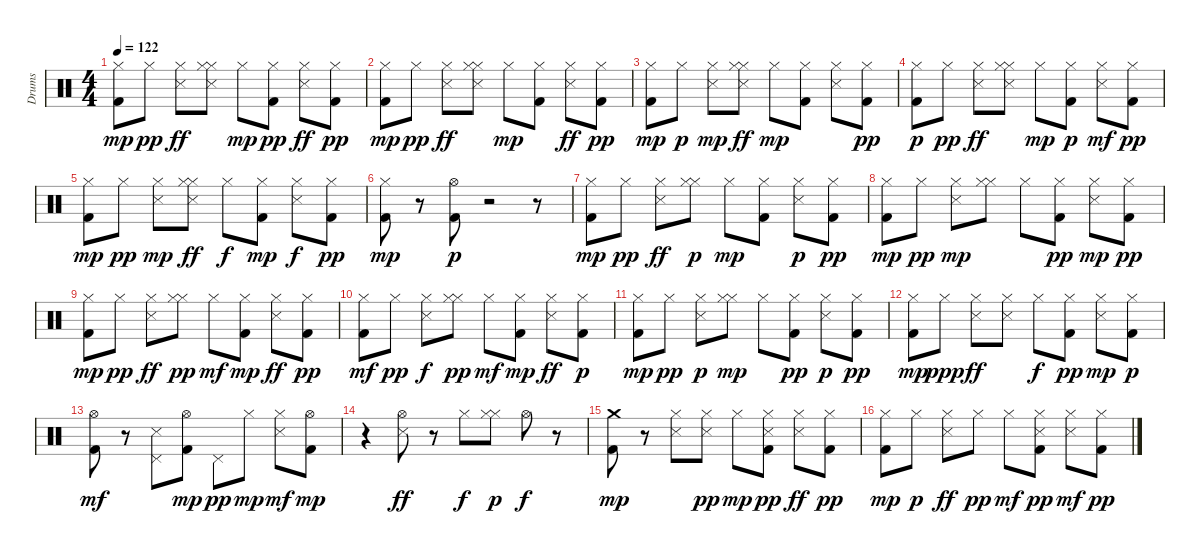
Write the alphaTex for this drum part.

\track ("Drums    " "Drums    ") {instrument percussion}
\staff {score}
\articulation defaults
\ts (4 4)
\tempo 122
\clef neutral
\ks c
("Hi-Hat (closed)" "Kick (hit) 2").8{dy mp} "Hi-Hat (closed)".8{dy pp} ("Hi-Hat (closed)" "Snare (side stick) 3").8{dy ff} ("Hi-Hat (closed)" "Hi-Hat (closed)" "Snare (side stick) 3").8 "Hi-Hat (closed)".8{dy mp} ("Kick (hit) 2" "Hi-Hat (closed)").8{dy pp} ("Hi-Hat (closed)" "Snare (side stick) 3").8{dy ff} ("Hi-Hat (closed)" "Kick (hit) 2").8{dy pp} |
("Hi-Hat (closed)" "Kick (hit) 2").8{dy mp} "Hi-Hat (closed)".8{dy pp} ("Hi-Hat (closed)" "Snare (side stick) 3").8{dy ff} ("Hi-Hat (closed)" "Hi-Hat (closed)" "Snare (side stick) 3").8 "Hi-Hat (closed)".8{dy mp} ("Hi-Hat (closed)" "Kick (hit) 2").8 ("Snare (side stick) 3" "Hi-Hat (closed)").8{dy ff} ("Hi-Hat (closed)" "Kick (hit) 2").8{dy pp} |
("Hi-Hat (closed)" "Kick (hit) 2").8{dy mp} "Hi-Hat (closed)".8{dy p} ("Snare (side stick) 3" "Hi-Hat (closed)").8{dy mp} ("Hi-Hat (closed)" "Hi-Hat (closed)" "Snare (side stick) 3").8{dy ff} "Hi-Hat (closed)".8{dy mp} ("Kick (hit) 2" "Hi-Hat (closed)").8 ("Snare (side stick) 3" "Hi-Hat (closed)").8 ("Kick (hit) 2" "Hi-Hat (closed)").8{dy pp} |
("Kick (hit) 2" "Hi-Hat (closed)").8{dy p} "Hi-Hat (closed)".8{dy pp} ("Hi-Hat (closed)" "Snare (side stick) 3").8{dy ff} ("Hi-Hat (closed)" "Hi-Hat (closed)" "Snare (side stick) 3").8 "Hi-Hat (closed)".8{dy mp} ("Kick (hit) 2" "Hi-Hat (closed)").8{dy p} ("Snare (side stick) 3" "Hi-Hat (closed)").8{dy mf} ("Kick (hit) 2" "Hi-Hat (closed)").8{dy pp} |
("Kick (hit) 2" "Hi-Hat (closed)").8{dy mp} "Hi-Hat (closed)".8{dy pp} ("Snare (side stick) 3" "Hi-Hat (closed)").8{dy mp} ("Hi-Hat (closed)" "Hi-Hat (closed)" "Snare (side stick) 3").8{dy ff} "Hi-Hat (closed)".8{dy f} ("Hi-Hat (closed)" "Kick (hit) 2").8{dy mp} ("Hi-Hat (closed)" "Snare (side stick) 3").8{dy f} ("Hi-Hat (closed)" "Kick (hit) 2").8{dy pp} |
("Kick (hit) 2" "Hi-Hat (closed)").8{dy mp} r.8 ("Hi-Hat (open)" "Kick (hit) 2").8{dy p} r.2 r.8 |
("Hi-Hat (closed)" "Kick (hit) 2").8{dy mp} "Hi-Hat (closed)".8{dy pp} ("Hi-Hat (closed)" "Snare (side stick) 3").8{dy ff} ("Hi-Hat (closed)" "Hi-Hat (closed)").8{dy p} "Hi-Hat (closed)".8{dy mp} ("Hi-Hat (closed)" "Kick (hit) 2").8 ("Snare (side stick) 3" "Hi-Hat (closed)").8{dy p} ("Hi-Hat (closed)" "Kick (hit) 2").8{dy pp} |
("Kick (hit) 2" "Hi-Hat (closed)").8{dy mp} "Hi-Hat (closed)".8{dy pp} ("Snare (side stick) 3" "Hi-Hat (closed)").8{dy mp} ("Hi-Hat (closed)" "Hi-Hat (closed)").8 "Hi-Hat (closed)".8 ("Kick (hit) 2" "Hi-Hat (closed)").8{dy pp} ("Snare (side stick) 3" "Hi-Hat (closed)").8{dy mp} ("Kick (hit) 2" "Hi-Hat (closed)").8{dy pp} |
("Hi-Hat (closed)" "Kick (hit) 2").8{dy mp} "Hi-Hat (closed)".8{dy pp} ("Hi-Hat (closed)" "Snare (side stick) 3").8{dy ff} ("Hi-Hat (closed)" "Hi-Hat (closed)").8{dy pp} "Hi-Hat (closed)".8{dy mf} ("Hi-Hat (closed)" "Kick (hit) 2").8{dy mp} ("Hi-Hat (closed)" "Snare (side stick) 3").8{dy ff} ("Hi-Hat (closed)" "Kick (hit) 2").8{dy pp} |
("Hi-Hat (closed)" "Kick (hit) 2").8{dy mf} "Hi-Hat (closed)".8{dy pp} ("Hi-Hat (closed)" "Snare (side stick) 3").8{dy f} ("Hi-Hat (closed)" "Hi-Hat (closed)").8{dy pp} "Hi-Hat (closed)".8{dy mf} ("Hi-Hat (closed)" "Kick (hit) 2").8{dy mp} ("Hi-Hat (closed)" "Snare (side stick) 3").8{dy ff} ("Hi-Hat (closed)" "Kick (hit) 2").8{dy p} |
("Kick (hit) 2" "Hi-Hat (closed)").8{dy mp} "Hi-Hat (closed)".8{dy pp} ("Snare (side stick) 3" "Hi-Hat (closed)").8{dy p} ("Hi-Hat (closed)" "Hi-Hat (closed)").8{dy mp} "Hi-Hat (closed)".8 ("Kick (hit) 2" "Hi-Hat (closed)").8{dy pp} ("Snare (side stick) 3" "Hi-Hat (closed)").8{dy p} ("Kick (hit) 2" "Hi-Hat (closed)").8{dy pp} |
("Kick (hit) 2" "Hi-Hat (closed)").8{dy mp} "Hi-Hat (closed)".8{dy ppp} ("Hi-Hat (closed)" "Snare (side stick) 3").8{dy ff} ("Hi-Hat (closed)" "Snare (side stick) 3").8 "Hi-Hat (closed)".8{dy f} ("Kick (hit) 2" "Hi-Hat (closed)").8{dy pp} ("Snare (side stick) 3" "Hi-Hat (closed)").8{dy mp} ("Hi-Hat (closed)" "Kick (hit) 2").8{dy p} |
("Kick (hit) 2" "Hi-Hat (open)").8{dy mf} r.8 ("Snare (side stick) 3" "Pedal Hi-Hat (hit)").8 ("Kick (hit) 2" "Hi-Hat (open)").8{dy mp} "Pedal Hi-Hat (hit)".8{dy pp} "Hi-Hat (closed)".8{dy mp} ("Snare (side stick) 3" "Hi-Hat (closed)").8{dy mf} ("Hi-Hat (open)" "Kick (hit) 2").8{dy mp} |
r.4 ("Snare (side stick) 3" "Hi-Hat (open)").8{dy ff} r.8 "Hi-Hat (closed)".8{dy f} ("Hi-Hat (closed)" "Hi-Hat (closed)").8{dy p} "Hi-Hat (open)".8{dy f} r.8 |
("Crash medium (hit)" "Kick (hit) 2").8{dy mp} r.8 ("Snare (side stick) 3" "Hi-Hat (closed)").8 ("Hi-Hat (closed)" "Snare (side stick) 3").8{dy pp} "Hi-Hat (closed)".8{dy mp} ("Kick (hit) 2" "Snare (side stick) 3" "Hi-Hat (closed)").8{dy pp} ("Hi-Hat (closed)" "Snare (side stick) 3").8{dy ff} ("Hi-Hat (closed)" "Kick (hit) 2").8{dy pp} |
("Kick (hit) 2" "Hi-Hat (closed)").8{dy mp} "Hi-Hat (closed)".8{dy p} ("Hi-Hat (closed)" "Snare (side stick) 3").8{dy ff} "Hi-Hat (closed)".8{dy pp} "Hi-Hat (closed)".8{dy mf} ("Snare (side stick) 3" "Kick (hit) 2" "Hi-Hat (closed)").8{dy pp} ("Snare (side stick) 3" "Hi-Hat (closed)").8{dy mf} ("Kick (hit) 2" "Hi-Hat (closed)").8{dy pp}
